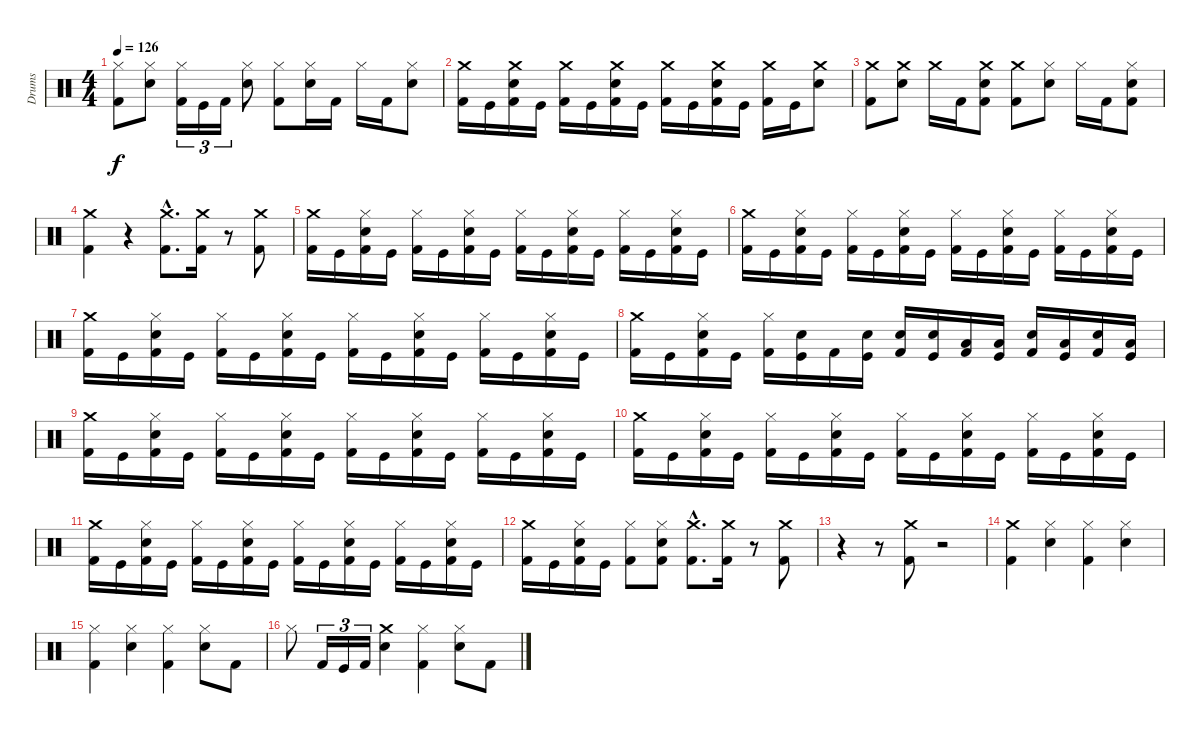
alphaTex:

\track ("Drums" "Drums") {instrument percussion}
\staff {score}
\articulation defaults
\ts (4 4)
\tempo 126
\clef neutral
\ks c
("Hi-Hat (closed)" "Kick (hit) 2").8{dy f} ("Snare (hit) 2" "Hi-Hat (closed)").8 ("Hi-Hat (closed)" "Kick (hit) 2").16{tu (3 2)} "Kick (hit)".16{tu (3 2)} "Kick (hit) 2".16{tu (3 2)} ("Snare (hit) 2" "Hi-Hat (closed)").8 ("Hi-Hat (closed)" "Kick (hit) 2").8 ("Snare (hit) 2" "Hi-Hat (closed)").16 "Kick (hit) 2".16 "Hi-Hat (closed)".16 "Kick (hit) 2".16 ("Snare (hit) 2" "Hi-Hat (closed)").8 |
("Crash medium (hit)" "Kick (hit) 2").16 "Kick (hit)".16 ("Snare (hit) 2" "Crash medium (hit)" "Kick (hit) 2").16 "Kick (hit)".16 ("Crash medium (hit)" "Kick (hit) 2").16 "Kick (hit)".16 ("Snare (hit) 2" "Crash medium (hit)" "Kick (hit) 2").16 "Kick (hit)".16 ("Crash medium (hit)" "Kick (hit) 2").16 "Kick (hit)".16 ("Snare (hit) 2" "Crash medium (hit)" "Kick (hit) 2").16 "Kick (hit)".16 ("Crash medium (hit)" "Kick (hit) 2").16 "Kick (hit)".16 ("Snare (hit) 2" "Crash medium (hit)").8 |
("Kick (hit) 2" "Crash medium (hit)").8 ("Snare (hit) 2" "Crash medium (hit)").8 "Crash medium (hit)".16 "Kick (hit) 2".16 ("Kick (hit) 2" "Snare (hit) 2" "Crash medium (hit)").8 ("Kick (hit) 2" "Crash medium (hit)").8 ("Hi-Hat (closed)" "Snare (hit) 2").8 "Hi-Hat (closed)".16 "Kick (hit) 2".16 ("Kick (hit) 2" "Snare (hit) 2" "Hi-Hat (closed)").8 |
("Crash medium (hit)" "Kick (hit) 2").4 r.4 ("Kick (hit) 2"{hac} "Crash medium (hit)"{hac}).8{d} ("Crash medium (hit)" "Kick (hit) 2").16 r.8 ("Crash medium (hit)" "Kick (hit) 2").8 |
("Crash medium (hit)" "Kick (hit) 2").16 "Kick (hit)".16 ("Snare (hit) 2" "Hi-Hat (closed)" "Kick (hit) 2").16 "Kick (hit)".16 ("Hi-Hat (closed)" "Kick (hit) 2").16 "Kick (hit)".16 ("Snare (hit) 2" "Hi-Hat (closed)" "Kick (hit) 2").16 "Kick (hit)".16 ("Hi-Hat (closed)" "Kick (hit) 2").16 "Kick (hit)".16 ("Snare (hit) 2" "Hi-Hat (closed)" "Kick (hit) 2").16 "Kick (hit)".16 ("Hi-Hat (closed)" "Kick (hit) 2").16 "Kick (hit)".16 ("Snare (hit) 2" "Hi-Hat (closed)" "Kick (hit) 2").16 "Kick (hit)".16 |
("Crash medium (hit)" "Kick (hit) 2").16 "Kick (hit)".16 ("Snare (hit) 2" "Hi-Hat (closed)" "Kick (hit) 2").16 "Kick (hit)".16 ("Hi-Hat (closed)" "Kick (hit) 2").16 "Kick (hit)".16 ("Snare (hit) 2" "Hi-Hat (closed)" "Kick (hit) 2").16 "Kick (hit)".16 ("Hi-Hat (closed)" "Kick (hit) 2").16 "Kick (hit)".16 ("Snare (hit) 2" "Hi-Hat (closed)" "Kick (hit) 2").16 "Kick (hit)".16 ("Hi-Hat (closed)" "Kick (hit) 2").16 "Kick (hit)".16 ("Snare (hit) 2" "Hi-Hat (closed)" "Kick (hit) 2").16 "Kick (hit)".16 |
("Crash medium (hit)" "Kick (hit) 2").16 "Kick (hit)".16 ("Snare (hit) 2" "Hi-Hat (closed)" "Kick (hit) 2").16 "Kick (hit)".16 ("Hi-Hat (closed)" "Kick (hit) 2").16 "Kick (hit)".16 ("Snare (hit) 2" "Hi-Hat (closed)" "Kick (hit) 2").16 "Kick (hit)".16 ("Hi-Hat (closed)" "Kick (hit) 2").16 "Kick (hit)".16 ("Snare (hit) 2" "Hi-Hat (closed)" "Kick (hit) 2").16 "Kick (hit)".16 ("Hi-Hat (closed)" "Kick (hit) 2").16 "Kick (hit)".16 ("Snare (hit) 2" "Hi-Hat (closed)" "Kick (hit) 2").16 "Kick (hit)".16 |
("Crash medium (hit)" "Kick (hit) 2").16 "Kick (hit)".16 ("Hi-Hat (closed)" "Snare (hit) 2" "Kick (hit) 2").16 "Kick (hit)".16 ("Hi-Hat (closed)" "Kick (hit) 2").16 ("Snare (hit) 2" "Kick (hit)").16 "Kick (hit) 2".16 ("Snare (hit) 2" "Kick (hit)").16 ("Snare (hit) 2" "Kick (hit) 2").16 ("Snare (hit) 2" "Kick (hit)").16 ("Low Tom (hit)" "Kick (hit) 2").16 ("Low Tom (hit)" "Kick (hit)").16 ("Snare (hit) 2" "Kick (hit) 2").16 ("Low Tom (hit)" "Kick (hit)").16 ("Snare (hit) 2" "Kick (hit) 2").16 ("Low Tom (hit)" "Kick (hit)").16 |
("Crash medium (hit)" "Kick (hit) 2").16 "Kick (hit)".16 ("Snare (hit) 2" "Hi-Hat (closed)" "Kick (hit) 2").16 "Kick (hit)".16 ("Hi-Hat (closed)" "Kick (hit) 2").16 "Kick (hit)".16 ("Snare (hit) 2" "Hi-Hat (closed)" "Kick (hit) 2").16 "Kick (hit)".16 ("Hi-Hat (closed)" "Kick (hit) 2").16 "Kick (hit)".16 ("Snare (hit) 2" "Hi-Hat (closed)" "Kick (hit) 2").16 "Kick (hit)".16 ("Hi-Hat (closed)" "Kick (hit) 2").16 "Kick (hit)".16 ("Snare (hit) 2" "Hi-Hat (closed)" "Kick (hit) 2").16 "Kick (hit)".16 |
("Crash medium (hit)" "Kick (hit) 2").16 "Kick (hit)".16 ("Snare (hit) 2" "Hi-Hat (closed)" "Kick (hit) 2").16 "Kick (hit)".16 ("Hi-Hat (closed)" "Kick (hit) 2").16 "Kick (hit)".16 ("Snare (hit) 2" "Hi-Hat (closed)" "Kick (hit) 2").16 "Kick (hit)".16 ("Hi-Hat (closed)" "Kick (hit) 2").16 "Kick (hit)".16 ("Snare (hit) 2" "Hi-Hat (closed)" "Kick (hit) 2").16 "Kick (hit)".16 ("Hi-Hat (closed)" "Kick (hit) 2").16 "Kick (hit)".16 ("Snare (hit) 2" "Hi-Hat (closed)" "Kick (hit) 2").16 "Kick (hit)".16 |
("Crash medium (hit)" "Kick (hit) 2").16 "Kick (hit)".16 ("Snare (hit) 2" "Hi-Hat (closed)" "Kick (hit) 2").16 "Kick (hit)".16 ("Hi-Hat (closed)" "Kick (hit) 2").16 "Kick (hit)".16 ("Snare (hit) 2" "Hi-Hat (closed)" "Kick (hit) 2").16 "Kick (hit)".16 ("Hi-Hat (closed)" "Kick (hit) 2").16 "Kick (hit)".16 ("Snare (hit) 2" "Hi-Hat (closed)" "Kick (hit) 2").16 "Kick (hit)".16 ("Hi-Hat (closed)" "Kick (hit) 2").16 "Kick (hit)".16 ("Snare (hit) 2" "Hi-Hat (closed)" "Kick (hit) 2").16 "Kick (hit)".16 |
("Crash medium (hit)" "Kick (hit) 2").16 "Kick (hit)".16 ("Snare (hit) 2" "Hi-Hat (closed)" "Kick (hit) 2").16 "Kick (hit)".16 ("Hi-Hat (closed)" "Kick (hit) 2").8 ("Snare (hit) 2" "Hi-Hat (closed)" "Kick (hit) 2").8 ("Crash medium (hit)"{hac} "Kick (hit) 2"{hac}).8{d} ("Crash medium (hit)" "Kick (hit) 2").16 r.8 ("Crash medium (hit)" "Kick (hit) 2").8 |
r.4 r.8 ("Kick (hit) 2" "Crash medium (hit)").8 r.2 |
("Kick (hit) 2" "Crash medium (hit)").4 ("Hi-Hat (closed)" "Snare (hit) 2").4 ("Hi-Hat (closed)" "Kick (hit) 2").4 ("Snare (hit) 2" "Hi-Hat (closed)").4 |
("Hi-Hat (closed)" "Kick (hit) 2").4 ("Hi-Hat (closed)" "Snare (hit) 2").4 ("Hi-Hat (closed)" "Kick (hit) 2").4 ("Hi-Hat (closed)" "Snare (hit) 2").8 "Kick (hit) 2".8 |
"Hi-Hat (closed)".8 "Kick (hit) 2".16{tu (3 2)} "Kick (hit)".16{tu (3 2)} "Kick (hit) 2".16{tu (3 2)} ("Snare (hit) 2" "Crash medium (hit)").4 ("Hi-Hat (closed)" "Kick (hit) 2").4 ("Snare (hit) 2" "Hi-Hat (closed)").8 "Kick (hit) 2".8
